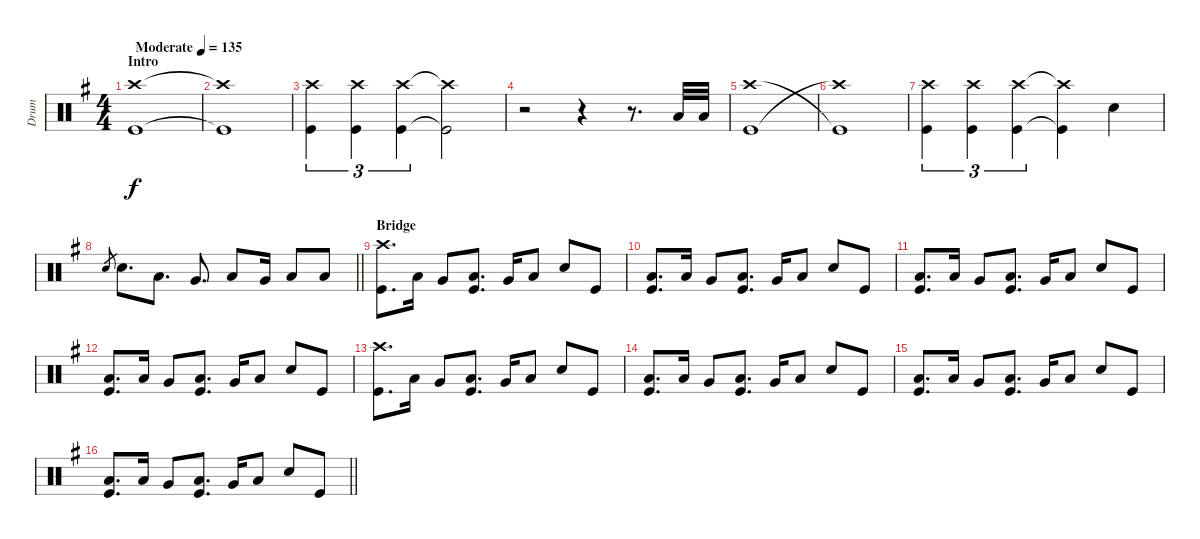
\track ("Drum" "Drum") {instrument percussion}
\staff {score}
\articulation defaults
\ts (4 4)
\section ("" "Intro")
\tempo (135 "Moderate")
\clef neutral
\ks g
("Crash high (hit)" "Kick (hit)").1{dy f} |
("Crash high (hit)"{t} "Kick (hit)"{t}).1 |
("Kick (hit)" "Crash high (hit)").4{tu (3 2)} ("Kick (hit)" "Crash high (hit)").4{tu (3 2)} ("Kick (hit)" "Crash high (hit)").4{tu (3 2)} ("Kick (hit)"{t} "Crash high (hit)"{t}).2 |
r.2 r.4 r.8{d} "Low Floor Tom (hit)".32 "Low Floor Tom (hit)".32 |
("Kick (hit)" "Crash high (hit)").1 |
("Crash high (hit)"{t} "Kick (hit)"{t}).1 |
("Kick (hit)" "Crash high (hit)").4{tu (3 2)} ("Crash high (hit)" "Kick (hit)").4{tu (3 2)} ("Crash high (hit)" "Kick (hit)").4{tu (3 2)} ("Crash high (hit)"{t} "Kick (hit)"{t}).4 "Snare (hit) 2".4 |
\barLineRight lightlight "Snare (hit) 2".8{gr} "Snare (hit) 2".8{d} "Low Tom (hit)".8{d} "Very Low Tom (hit)".8{d} "Low Tom (hit)".8 "Very Low Tom (hit)".16 "Low Floor Tom (hit)".8 "Low Floor Tom (hit)".8
|
\section ("" "Bridge")
("Kick (hit)" "Crash high (hit)").8{d} "Low Tom (hit)".16 "Very Low Tom (hit)".8 ("Low Tom (hit)" "Kick (hit)").8{d} "Very Low Tom (hit)".16 "Low Floor Tom (hit)".8 "Snare (hit) 2".8 "Kick (hit)".8 |
("Low Floor Tom (hit)" "Kick (hit)").8{d} "Low Tom (hit)".16 "Very Low Tom (hit)".8 ("Low Tom (hit)" "Kick (hit)").8{d} "Very Low Tom (hit)".16 "Low Floor Tom (hit)".8 "Snare (hit) 2".8 "Kick (hit)".8 |
("Low Floor Tom (hit)" "Kick (hit)").8{d} "Low Tom (hit)".16 "Very Low Tom (hit)".8 ("Low Tom (hit)" "Kick (hit)").8{d} "Very Low Tom (hit)".16 "Low Floor Tom (hit)".8 "Snare (hit) 2".8 "Kick (hit)".8 |
("Low Floor Tom (hit)" "Kick (hit)").8{d} "Low Tom (hit)".16 "Very Low Tom (hit)".8 ("Low Tom (hit)" "Kick (hit)").8{d} "Very Low Tom (hit)".16 "Low Floor Tom (hit)".8 "Snare (hit) 2".8 "Kick (hit)".8 |
("Kick (hit)" "Crash high (hit)").8{d} "Low Tom (hit)".16 "Very Low Tom (hit)".8 ("Low Tom (hit)" "Kick (hit)").8{d} "Very Low Tom (hit)".16 "Low Floor Tom (hit)".8 "Snare (hit) 2".8 "Kick (hit)".8 |
("Low Floor Tom (hit)" "Kick (hit)").8{d} "Low Tom (hit)".16 "Very Low Tom (hit)".8 ("Low Tom (hit)" "Kick (hit)").8{d} "Very Low Tom (hit)".16 "Low Floor Tom (hit)".8 "Snare (hit) 2".8 "Kick (hit)".8 |
("Low Floor Tom (hit)" "Kick (hit)").8{d} "Low Tom (hit)".16 "Very Low Tom (hit)".8 ("Low Tom (hit)" "Kick (hit)").8{d} "Very Low Tom (hit)".16 "Low Floor Tom (hit)".8 "Snare (hit) 2".8 "Kick (hit)".8 |
\barLineRight lightlight
("Low Floor Tom (hit)" "Kick (hit)").8{d} "Low Tom (hit)".16 "Very Low Tom (hit)".8 ("Low Tom (hit)" "Kick (hit)").8{d} "Very Low Tom (hit)".16 "Low Floor Tom (hit)".8 "Snare (hit) 2".8 "Kick (hit)".8
